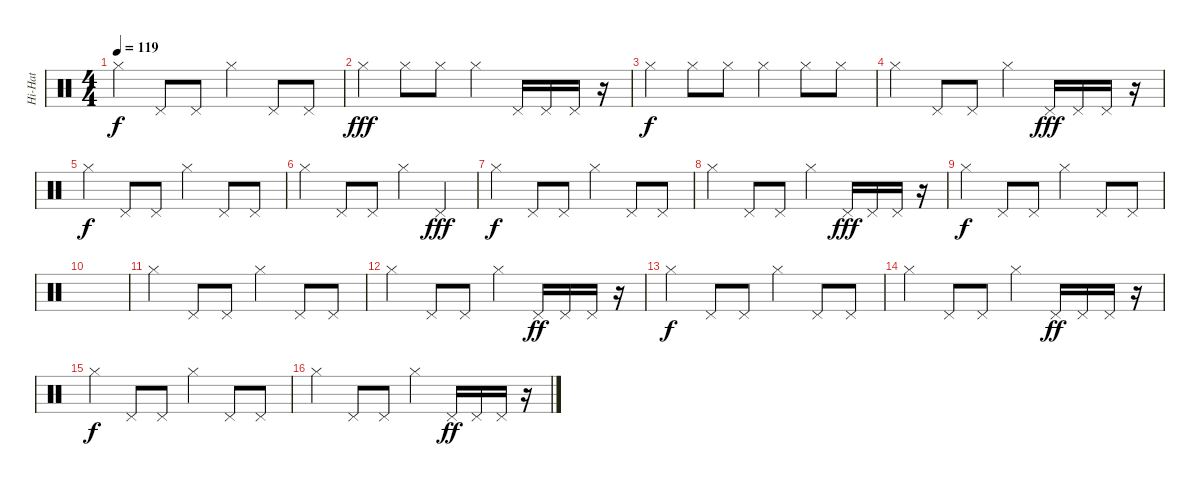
\track ("Hi-Hat" "Hi-Hat") {instrument percussion}
\staff {score}
\articulation defaults
\ts (4 4)
\tempo 119
\clef neutral
\ks c "Hi-Hat (closed)".4{dy f} "Pedal Hi-Hat (hit)".8 "Pedal Hi-Hat (hit)".8 "Hi-Hat (closed)".4 "Pedal Hi-Hat (hit)".8 "Pedal Hi-Hat (hit)".8
|
"Hi-Hat (closed)".4{dy fff} "Hi-Hat (closed)".8 "Hi-Hat (closed)".8 "Hi-Hat (closed)".4 "Pedal Hi-Hat (hit)".16 "Pedal Hi-Hat (hit)".16 "Pedal Hi-Hat (hit)".16 r.16 |
"Hi-Hat (closed)".4{dy f} "Hi-Hat (closed)".8 "Hi-Hat (closed)".8 "Hi-Hat (closed)".4 "Hi-Hat (closed)".8 "Hi-Hat (closed)".8 |
"Hi-Hat (closed)".4 "Pedal Hi-Hat (hit)".8 "Pedal Hi-Hat (hit)".8 "Hi-Hat (closed)".4 "Pedal Hi-Hat (hit)".16{dy fff} "Pedal Hi-Hat (hit)".16 "Pedal Hi-Hat (hit)".16 r.16 |
"Hi-Hat (closed)".4{dy f} "Pedal Hi-Hat (hit)".8 "Pedal Hi-Hat (hit)".8 "Hi-Hat (closed)".4 "Pedal Hi-Hat (hit)".8 "Pedal Hi-Hat (hit)".8 |
"Hi-Hat (closed)".4 "Pedal Hi-Hat (hit)".8 "Pedal Hi-Hat (hit)".8 "Hi-Hat (closed)".4 "Pedal Hi-Hat (hit)".4{dy fff} |
"Hi-Hat (closed)".4{dy f} "Pedal Hi-Hat (hit)".8 "Pedal Hi-Hat (hit)".8 "Hi-Hat (closed)".4 "Pedal Hi-Hat (hit)".8 "Pedal Hi-Hat (hit)".8 |
"Hi-Hat (closed)".4 "Pedal Hi-Hat (hit)".8 "Pedal Hi-Hat (hit)".8 "Hi-Hat (closed)".4 "Pedal Hi-Hat (hit)".16{dy fff} "Pedal Hi-Hat (hit)".16 "Pedal Hi-Hat (hit)".16 r.16 |
"Hi-Hat (closed)".4{dy f} "Pedal Hi-Hat (hit)".8 "Pedal Hi-Hat (hit)".8 "Hi-Hat (closed)".4 "Pedal Hi-Hat (hit)".8 "Pedal Hi-Hat (hit)".8 |
|
"Hi-Hat (closed)".4 "Pedal Hi-Hat (hit)".8 "Pedal Hi-Hat (hit)".8 "Hi-Hat (closed)".4 "Pedal Hi-Hat (hit)".8 "Pedal Hi-Hat (hit)".8 |
"Hi-Hat (closed)".4 "Pedal Hi-Hat (hit)".8 "Pedal Hi-Hat (hit)".8 "Hi-Hat (closed)".4 "Pedal Hi-Hat (hit)".16{dy ff} "Pedal Hi-Hat (hit)".16 "Pedal Hi-Hat (hit)".16 r.16 |
"Hi-Hat (closed)".4{dy f} "Pedal Hi-Hat (hit)".8 "Pedal Hi-Hat (hit)".8 "Hi-Hat (closed)".4 "Pedal Hi-Hat (hit)".8 "Pedal Hi-Hat (hit)".8 |
"Hi-Hat (closed)".4 "Pedal Hi-Hat (hit)".8 "Pedal Hi-Hat (hit)".8 "Hi-Hat (closed)".4 "Pedal Hi-Hat (hit)".16{dy ff} "Pedal Hi-Hat (hit)".16 "Pedal Hi-Hat (hit)".16 r.16 |
"Hi-Hat (closed)".4{dy f} "Pedal Hi-Hat (hit)".8 "Pedal Hi-Hat (hit)".8 "Hi-Hat (closed)".4 "Pedal Hi-Hat (hit)".8 "Pedal Hi-Hat (hit)".8 |
"Hi-Hat (closed)".4 "Pedal Hi-Hat (hit)".8 "Pedal Hi-Hat (hit)".8 "Hi-Hat (closed)".4 "Pedal Hi-Hat (hit)".16{dy ff} "Pedal Hi-Hat (hit)".16 "Pedal Hi-Hat (hit)".16 r.16
